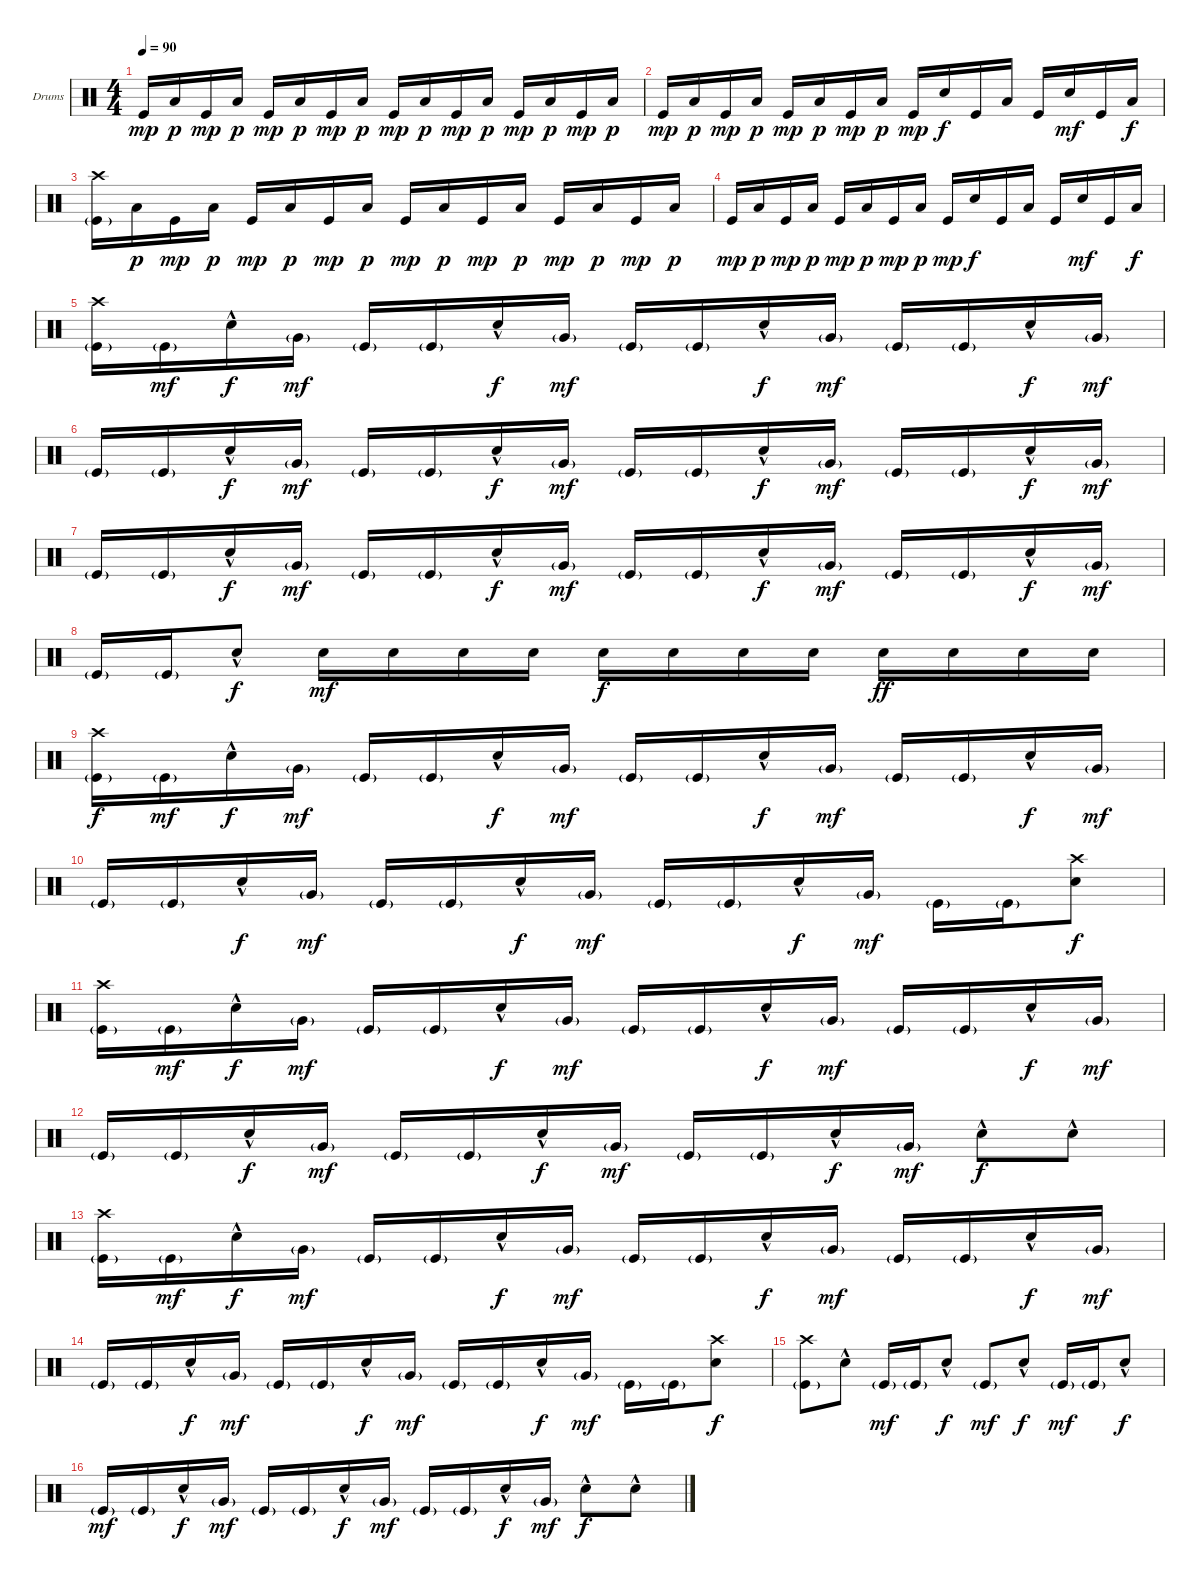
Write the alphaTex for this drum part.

\defaultSystemsLayout 4
\bracketExtendMode groupsimilarinstruments
\firstSystemTrackNameOrientation horizontal
\otherSystemsTrackNameOrientation horizontal
\track ("Drums" "Drums") {instrument percussion}
\staff {score}
\articulation defaults
\ts (4 4)
\tempo 90
\clef neutral
\scale
0.474178
\ks c "Kick (hit)".16{dy mp} "Low Tom (hit)".16{dy p} "Kick (hit)".16{dy mp} "Low Tom (hit)".16{dy p} "Kick (hit)".16{dy mp} "Low Tom (hit)".16{dy p} "Kick (hit)".16{dy mp} "Low Tom (hit)".16{dy p} "Kick (hit)".16{dy mp} "Low Tom (hit)".16{dy p} "Kick (hit)".16{dy mp} "Low Tom (hit)".16{dy p} "Kick (hit)".16{dy mp} "Low Tom (hit)".16{dy p} "Kick (hit)".16{dy mp} "Low Tom (hit)".16{dy p}
|
\scale
0.262911 "Kick (hit)".16{dy mp} "Low Tom (hit)".16{dy p} "Kick (hit)".16{dy mp} "Low Tom (hit)".16{dy p} "Kick (hit)".16{dy mp} "Low Tom (hit)".16{dy p} "Kick (hit)".16{dy mp} "Low Tom (hit)".16{dy p} "Kick (hit)".16{dy mp} "Snare (hit) 2".16{dy f} "Kick (hit)".16 "Low Tom (hit)".16 "Kick (hit)".16 "Snare (hit) 2".16{dy mf} "Kick (hit)".16 "Low Tom (hit)".16{dy f} |
\scale
0.262911 ("Crash high (hit)" "Kick (hit)"{g}).16 "Low Tom (hit)".16{dy p} "Kick (hit)".16{dy mp} "Low Tom (hit)".16{dy p} "Kick (hit)".16{dy mp} "Low Tom (hit)".16{dy p} "Kick (hit)".16{dy mp} "Low Tom (hit)".16{dy p} "Kick (hit)".16{dy mp} "Low Tom (hit)".16{dy p} "Kick (hit)".16{dy mp} "Low Tom (hit)".16{dy p} "Kick (hit)".16{dy mp} "Low Tom (hit)".16{dy p} "Kick (hit)".16{dy mp} "Low Tom (hit)".16{dy p} |
\scale
0.333333 "Kick (hit)".16{dy mp} "Low Tom (hit)".16{dy p} "Kick (hit)".16{dy mp} "Low Tom (hit)".16{dy p} "Kick (hit)".16{dy mp} "Low Tom (hit)".16{dy p} "Kick (hit)".16{dy mp} "Low Tom (hit)".16{dy p} "Kick (hit)".16{dy mp} "Snare (hit) 2".16{dy f} "Kick (hit)".16 "Low Tom (hit)".16 "Kick (hit)".16 "Snare (hit) 2".16{dy mf} "Kick (hit)".16 "Low Tom (hit)".16{dy f} |
\scale
0.333333 ("Crash high (hit)" "Kick (hit)"{g}).16 "Kick (hit)"{g}.16{dy mf} "Snare (hit) 2"{hac}.16{dy f} "Very Low Tom (hit)"{g}.16{dy mf} "Kick (hit)"{g}.16 "Kick (hit)"{g}.16 "Snare (hit) 2"{hac}.16{dy f} "Very Low Tom (hit)"{g}.16{dy mf} "Kick (hit)"{g}.16 "Kick (hit)"{g}.16 "Snare (hit) 2"{hac}.16{dy f} "Very Low Tom (hit)"{g}.16{dy mf} "Kick (hit)"{g}.16 "Kick (hit)"{g}.16 "Snare (hit) 2"{hac}.16{dy f} "Very Low Tom (hit)"{g}.16{dy mf} |
\scale
0.333333 "Kick (hit)"{g}.16 "Kick (hit)"{g}.16 "Snare (hit) 2"{hac}.16{dy f} "Very Low Tom (hit)"{g}.16{dy mf} "Kick (hit)"{g}.16 "Kick (hit)"{g}.16 "Snare (hit) 2"{hac}.16{dy f} "Very Low Tom (hit)"{g}.16{dy mf} "Kick (hit)"{g}.16 "Kick (hit)"{g}.16 "Snare (hit) 2"{hac}.16{dy f} "Very Low Tom (hit)"{g}.16{dy mf} "Kick (hit)"{g}.16 "Kick (hit)"{g}.16 "Snare (hit) 2"{hac}.16{dy f} "Very Low Tom (hit)"{g}.16{dy mf} |
\scale
0.333333 "Kick (hit)"{g}.16 "Kick (hit)"{g}.16 "Snare (hit) 2"{hac}.16{dy f} "Very Low Tom (hit)"{g}.16{dy mf} "Kick (hit)"{g}.16 "Kick (hit)"{g}.16 "Snare (hit) 2"{hac}.16{dy f} "Very Low Tom (hit)"{g}.16{dy mf} "Kick (hit)"{g}.16 "Kick (hit)"{g}.16 "Snare (hit) 2"{hac}.16{dy f} "Very Low Tom (hit)"{g}.16{dy mf} "Kick (hit)"{g}.16 "Kick (hit)"{g}.16 "Snare (hit) 2"{hac}.16{dy f} "Very Low Tom (hit)"{g}.16{dy mf} |
\scale
0.333333 "Kick (hit)"{g}.16 "Kick (hit)"{g}.16 "Snare (hit) 2"{hac}.8{dy f} "Snare (hit) 2".16{dy mf} "Snare (hit) 2".16 "Snare (hit) 2".16 "Snare (hit) 2".16 "Snare (hit) 2".16{dy f} "Snare (hit) 2".16 "Snare (hit) 2".16 "Snare (hit) 2".16 "Snare (hit) 2".16{dy ff} "Snare (hit) 2".16 "Snare (hit) 2".16 "Snare (hit) 2".16 |
\scale
0.333333 ("Crash high (hit)" "Kick (hit)"{g}).16{dy f} "Kick (hit)"{g}.16{dy mf} "Snare (hit) 2"{hac}.16{dy f} "Very Low Tom (hit)"{g}.16{dy mf} "Kick (hit)"{g}.16 "Kick (hit)"{g}.16 "Snare (hit) 2"{hac}.16{dy f} "Very Low Tom (hit)"{g}.16{dy mf} "Kick (hit)"{g}.16 "Kick (hit)"{g}.16 "Snare (hit) 2"{hac}.16{dy f} "Very Low Tom (hit)"{g}.16{dy mf} "Kick (hit)"{g}.16 "Kick (hit)"{g}.16 "Snare (hit) 2"{hac}.16{dy f} "Very Low Tom (hit)"{g}.16{dy mf} |
"Kick (hit)"{g}.16 "Kick (hit)"{g}.16 "Snare (hit) 2"{hac}.16{dy f} "Very Low Tom (hit)"{g}.16{dy mf} "Kick (hit)"{g}.16 "Kick (hit)"{g}.16 "Snare (hit) 2"{hac}.16{dy f} "Very Low Tom (hit)"{g}.16{dy mf} "Kick (hit)"{g}.16 "Kick (hit)"{g}.16 "Snare (hit) 2"{hac}.16{dy f} "Very Low Tom (hit)"{g}.16{dy mf} "Kick (hit)"{g}.16 "Kick (hit)"{g}.16 ("Crash high (hit)" "Snare (hit) 2").8{dy f} |
("Crash high (hit)" "Kick (hit)"{g}).16 "Kick (hit)"{g}.16{dy mf} "Snare (hit) 2"{hac}.16{dy f} "Very Low Tom (hit)"{g}.16{dy mf} "Kick (hit)"{g}.16 "Kick (hit)"{g}.16 "Snare (hit) 2"{hac}.16{dy f} "Very Low Tom (hit)"{g}.16{dy mf} "Kick (hit)"{g}.16 "Kick (hit)"{g}.16 "Snare (hit) 2"{hac}.16{dy f} "Very Low Tom (hit)"{g}.16{dy mf} "Kick (hit)"{g}.16 "Kick (hit)"{g}.16 "Snare (hit) 2"{hac}.16{dy f} "Very Low Tom (hit)"{g}.16{dy mf} |
"Kick (hit)"{g}.16 "Kick (hit)"{g}.16 "Snare (hit) 2"{hac}.16{dy f} "Very Low Tom (hit)"{g}.16{dy mf} "Kick (hit)"{g}.16 "Kick (hit)"{g}.16 "Snare (hit) 2"{hac}.16{dy f} "Very Low Tom (hit)"{g}.16{dy mf} "Kick (hit)"{g}.16 "Kick (hit)"{g}.16 "Snare (hit) 2"{hac}.16{dy f} "Very Low Tom (hit)"{g}.16{dy mf} "Snare (hit) 2"{hac}.8{dy f} "Snare (hit) 2"{hac}.8 |
("Crash high (hit)" "Kick (hit)"{g}).16 "Kick (hit)"{g}.16{dy mf} "Snare (hit) 2"{hac}.16{dy f} "Very Low Tom (hit)"{g}.16{dy mf} "Kick (hit)"{g}.16 "Kick (hit)"{g}.16 "Snare (hit) 2"{hac}.16{dy f} "Very Low Tom (hit)"{g}.16{dy mf} "Kick (hit)"{g}.16 "Kick (hit)"{g}.16 "Snare (hit) 2"{hac}.16{dy f} "Very Low Tom (hit)"{g}.16{dy mf} "Kick (hit)"{g}.16 "Kick (hit)"{g}.16 "Snare (hit) 2"{hac}.16{dy f} "Very Low Tom (hit)"{g}.16{dy mf} |
"Kick (hit)"{g}.16 "Kick (hit)"{g}.16 "Snare (hit) 2"{hac}.16{dy f} "Very Low Tom (hit)"{g}.16{dy mf} "Kick (hit)"{g}.16 "Kick (hit)"{g}.16 "Snare (hit) 2"{hac}.16{dy f} "Very Low Tom (hit)"{g}.16{dy mf} "Kick (hit)"{g}.16 "Kick (hit)"{g}.16 "Snare (hit) 2"{hac}.16{dy f} "Very Low Tom (hit)"{g}.16{dy mf} "Kick (hit)"{g}.16 "Kick (hit)"{g}.16 ("Crash high (hit)" "Snare (hit) 2").8{dy f} |
("Crash high (hit)" "Kick (hit)"{g}).8 "Snare (hit) 2"{hac}.8 "Kick (hit)"{g}.16{dy mf} "Kick (hit)"{g}.16 "Snare (hit) 2"{hac}.8{dy f} "Kick (hit)"{g}.8{dy mf} "Snare (hit) 2"{hac}.8{dy f} "Kick (hit)"{g}.16{dy mf} "Kick (hit)"{g}.16 "Snare (hit) 2"{hac}.8{dy f} |
"Kick (hit)"{g}.16{dy mf} "Kick (hit)"{g}.16 "Snare (hit) 2"{hac}.16{dy f} "Very Low Tom (hit)"{g}.16{dy mf} "Kick (hit)"{g}.16 "Kick (hit)"{g}.16 "Snare (hit) 2"{hac}.16{dy f} "Very Low Tom (hit)"{g}.16{dy mf} "Kick (hit)"{g}.16 "Kick (hit)"{g}.16 "Snare (hit) 2"{hac}.16{dy f} "Very Low Tom (hit)"{g}.16{dy mf} "Snare (hit) 2"{hac}.8{dy f} "Snare (hit) 2"{hac}.8
